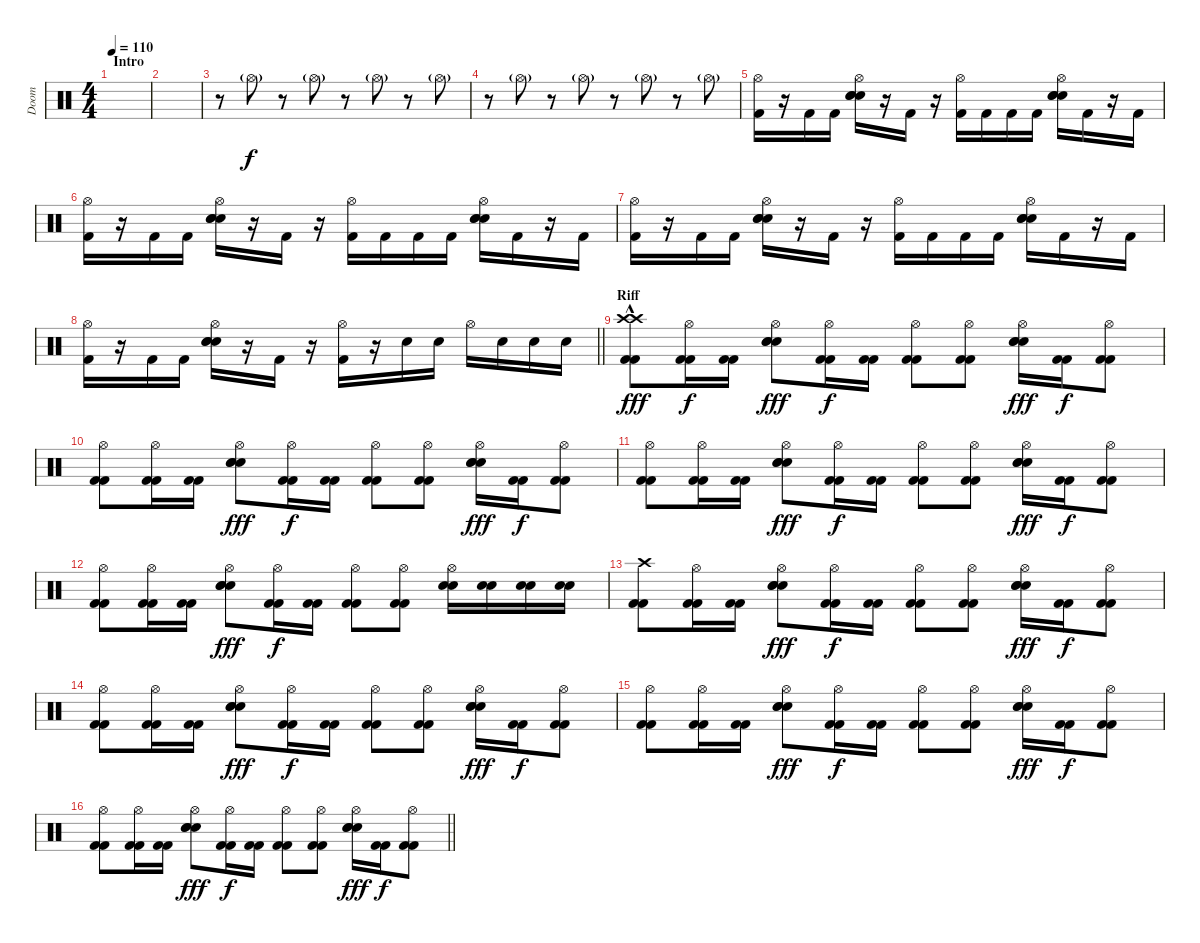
\track ("Doom" "Doom") {instrument percussion}
\staff {score}
\articulation defaults
\ts (4 4)
\section ("" "Intro")
\tempo 110
\clef neutral
\ks c
|
|
r.8 "Hi-Hat (open)"{g}.8 r.8 "Hi-Hat (open)"{g}.8 r.8 "Hi-Hat (open)"{g}.8 r.8 "Hi-Hat (open)"{g}.8 |
r.8 "Hi-Hat (open)"{g}.8 r.8 "Hi-Hat (open)"{g}.8 r.8 "Hi-Hat (open)"{g}.8 r.8 "Hi-Hat (open)"{g}.8 |
("Hi-Hat (open)" "Kick (hit) 2").16{dy f} r.16 "Kick (hit) 2".16 "Kick (hit) 2".16 ("Electric Snare (hit)" "Electric Snare (hit)" "Electric Snare (hit)" "Hi-Hat (open)").16 r.16 "Kick (hit) 2".16 r.16 ("Kick (hit) 2" "Hi-Hat (open)").16 "Kick (hit) 2".16 "Kick (hit) 2".16 "Kick (hit) 2".16 ("Electric Snare (hit)" "Electric Snare (hit)" "Electric Snare (hit)" "Hi-Hat (open)").16 "Kick (hit) 2".16 r.16 "Kick (hit) 2".16 |
("Hi-Hat (open)" "Kick (hit) 2").16 r.16 "Kick (hit) 2".16 "Kick (hit) 2".16 ("Electric Snare (hit)" "Electric Snare (hit)" "Electric Snare (hit)" "Hi-Hat (open)").16 r.16 "Kick (hit) 2".16 r.16 ("Kick (hit) 2" "Hi-Hat (open)").16 "Kick (hit) 2".16 "Kick (hit) 2".16 "Kick (hit) 2".16 ("Electric Snare (hit)" "Electric Snare (hit)" "Electric Snare (hit)" "Hi-Hat (open)").16 "Kick (hit) 2".16 r.16 "Kick (hit) 2".16 |
("Hi-Hat (open)" "Kick (hit) 2").16 r.16 "Kick (hit) 2".16 "Kick (hit) 2".16 ("Electric Snare (hit)" "Electric Snare (hit)" "Electric Snare (hit)" "Hi-Hat (open)").16 r.16 "Kick (hit) 2".16 r.16 ("Kick (hit) 2" "Hi-Hat (open)").16 "Kick (hit) 2".16 "Kick (hit) 2".16 "Kick (hit) 2".16 ("Electric Snare (hit)" "Electric Snare (hit)" "Electric Snare (hit)" "Hi-Hat (open)").16 "Kick (hit) 2".16 r.16 "Kick (hit) 2".16 |
\barLineRight lightlight
("Hi-Hat (open)" "Kick (hit) 2").16 r.16 "Kick (hit) 2".16 "Kick (hit) 2".16 ("Electric Snare (hit)" "Electric Snare (hit)" "Electric Snare (hit)" "Hi-Hat (open)").16 r.16 "Kick (hit) 2".16 r.16 ("Kick (hit) 2" "Hi-Hat (open)").16 r.16 "Electric Snare (hit)".16 "Electric Snare (hit)".16 "Hi-Hat (open)".16 "Electric Snare (hit)".16 "Electric Snare (hit)".16 "Electric Snare (hit)".16 |
\section ("" "Riff")
("Crash high (hit)"{hac} "Crash high (hit)" "Kick (hit) 2" "Kick (hit) 2").8{dy fff} ("Hi-Hat (open)" "Kick (hit) 2" "Kick (hit) 2").16{dy f} ("Kick (hit) 2" "Kick (hit) 2").16 ("Hi-Hat (open)" "Electric Snare (hit)" "Electric Snare (hit)" "Electric Snare (hit)").8{dy fff} ("Hi-Hat (open)" "Kick (hit) 2" "Kick (hit) 2").16{dy f} ("Kick (hit) 2" "Kick (hit) 2").16 ("Hi-Hat (open)" "Kick (hit) 2" "Kick (hit) 2").8 ("Hi-Hat (open)" "Kick (hit) 2" "Kick (hit) 2").8 ("Hi-Hat (open)" "Electric Snare (hit)" "Electric Snare (hit)" "Electric Snare (hit)").16{dy fff} ("Kick (hit) 2" "Kick (hit) 2").16{dy f} ("Hi-Hat (open)" "Kick (hit) 2" "Kick (hit) 2").8 |
("Hi-Hat (open)" "Kick (hit) 2" "Kick (hit) 2").8 ("Hi-Hat (open)" "Kick (hit) 2" "Kick (hit) 2").16 ("Kick (hit) 2" "Kick (hit) 2").16 ("Hi-Hat (open)" "Electric Snare (hit)" "Electric Snare (hit)" "Electric Snare (hit)").8{dy fff} ("Hi-Hat (open)" "Kick (hit) 2" "Kick (hit) 2").16{dy f} ("Kick (hit) 2" "Kick (hit) 2").16 ("Hi-Hat (open)" "Kick (hit) 2" "Kick (hit) 2").8 ("Hi-Hat (open)" "Kick (hit) 2" "Kick (hit) 2").8 ("Hi-Hat (open)" "Electric Snare (hit)" "Electric Snare (hit)" "Electric Snare (hit)").16{dy fff} ("Kick (hit) 2" "Kick (hit) 2").16{dy f} ("Hi-Hat (open)" "Kick (hit) 2" "Kick (hit) 2").8 |
("Hi-Hat (open)" "Kick (hit) 2" "Kick (hit) 2").8 ("Hi-Hat (open)" "Kick (hit) 2" "Kick (hit) 2").16 ("Kick (hit) 2" "Kick (hit) 2").16 ("Hi-Hat (open)" "Electric Snare (hit)" "Electric Snare (hit)" "Electric Snare (hit)").8{dy fff} ("Hi-Hat (open)" "Kick (hit) 2" "Kick (hit) 2").16{dy f} ("Kick (hit) 2" "Kick (hit) 2").16 ("Hi-Hat (open)" "Kick (hit) 2" "Kick (hit) 2").8 ("Hi-Hat (open)" "Kick (hit) 2" "Kick (hit) 2").8 ("Hi-Hat (open)" "Electric Snare (hit)" "Electric Snare (hit)" "Electric Snare (hit)").16{dy fff} ("Kick (hit) 2" "Kick (hit) 2").16{dy f} ("Hi-Hat (open)" "Kick (hit) 2" "Kick (hit) 2").8 |
("Hi-Hat (open)" "Kick (hit) 2" "Kick (hit) 2").8 ("Hi-Hat (open)" "Kick (hit) 2" "Kick (hit) 2").16 ("Kick (hit) 2" "Kick (hit) 2").16 ("Hi-Hat (open)" "Electric Snare (hit)" "Electric Snare (hit)" "Electric Snare (hit)").8{dy fff} ("Hi-Hat (open)" "Kick (hit) 2" "Kick (hit) 2").16{dy f} ("Kick (hit) 2" "Kick (hit) 2").16 ("Hi-Hat (open)" "Kick (hit) 2" "Kick (hit) 2").8 ("Hi-Hat (open)" "Kick (hit) 2" "Kick (hit) 2").8 ("Electric Snare (hit)" "Hi-Hat (open)" "Electric Snare (hit)").16 ("Electric Snare (hit)" "Electric Snare (hit)").16 ("Electric Snare (hit)" "Electric Snare (hit)").16 ("Electric Snare (hit)" "Electric Snare (hit)").16 |
("Crash high (hit)" "Kick (hit) 2" "Kick (hit) 2").8 ("Hi-Hat (open)" "Kick (hit) 2" "Kick (hit) 2").16 ("Kick (hit) 2" "Kick (hit) 2").16 ("Hi-Hat (open)" "Electric Snare (hit)" "Electric Snare (hit)" "Electric Snare (hit)").8{dy fff} ("Hi-Hat (open)" "Kick (hit) 2" "Kick (hit) 2").16{dy f} ("Kick (hit) 2" "Kick (hit) 2").16 ("Hi-Hat (open)" "Kick (hit) 2" "Kick (hit) 2").8 ("Hi-Hat (open)" "Kick (hit) 2" "Kick (hit) 2").8 ("Hi-Hat (open)" "Electric Snare (hit)" "Electric Snare (hit)" "Electric Snare (hit)").16{dy fff} ("Kick (hit) 2" "Kick (hit) 2").16{dy f} ("Hi-Hat (open)" "Kick (hit) 2" "Kick (hit) 2").8 |
("Hi-Hat (open)" "Kick (hit) 2" "Kick (hit) 2").8 ("Hi-Hat (open)" "Kick (hit) 2" "Kick (hit) 2").16 ("Kick (hit) 2" "Kick (hit) 2").16 ("Hi-Hat (open)" "Electric Snare (hit)" "Electric Snare (hit)" "Electric Snare (hit)").8{dy fff} ("Hi-Hat (open)" "Kick (hit) 2" "Kick (hit) 2").16{dy f} ("Kick (hit) 2" "Kick (hit) 2").16 ("Hi-Hat (open)" "Kick (hit) 2" "Kick (hit) 2").8 ("Hi-Hat (open)" "Kick (hit) 2" "Kick (hit) 2").8 ("Hi-Hat (open)" "Electric Snare (hit)" "Electric Snare (hit)" "Electric Snare (hit)").16{dy fff} ("Kick (hit) 2" "Kick (hit) 2").16{dy f} ("Hi-Hat (open)" "Kick (hit) 2" "Kick (hit) 2").8 |
("Hi-Hat (open)" "Kick (hit) 2" "Kick (hit) 2").8 ("Hi-Hat (open)" "Kick (hit) 2" "Kick (hit) 2").16 ("Kick (hit) 2" "Kick (hit) 2").16 ("Hi-Hat (open)" "Electric Snare (hit)" "Electric Snare (hit)" "Electric Snare (hit)").8{dy fff} ("Hi-Hat (open)" "Kick (hit) 2" "Kick (hit) 2").16{dy f} ("Kick (hit) 2" "Kick (hit) 2").16 ("Hi-Hat (open)" "Kick (hit) 2" "Kick (hit) 2").8 ("Hi-Hat (open)" "Kick (hit) 2" "Kick (hit) 2").8 ("Hi-Hat (open)" "Electric Snare (hit)" "Electric Snare (hit)" "Electric Snare (hit)").16{dy fff} ("Kick (hit) 2" "Kick (hit) 2").16{dy f} ("Hi-Hat (open)" "Kick (hit) 2" "Kick (hit) 2").8 |
\barLineRight lightlight
("Hi-Hat (open)" "Kick (hit) 2" "Kick (hit) 2").8 ("Hi-Hat (open)" "Kick (hit) 2" "Kick (hit) 2").16 ("Kick (hit) 2" "Kick (hit) 2").16 ("Hi-Hat (open)" "Electric Snare (hit)" "Electric Snare (hit)" "Electric Snare (hit)").8{dy fff} ("Hi-Hat (open)" "Kick (hit) 2" "Kick (hit) 2").16{dy f} ("Kick (hit) 2" "Kick (hit) 2").16 ("Hi-Hat (open)" "Kick (hit) 2" "Kick (hit) 2").8 ("Hi-Hat (open)" "Kick (hit) 2" "Kick (hit) 2").8 ("Hi-Hat (open)" "Electric Snare (hit)" "Electric Snare (hit)" "Electric Snare (hit)").16{dy fff} ("Kick (hit) 2" "Kick (hit) 2").16{dy f} ("Hi-Hat (open)" "Kick (hit) 2" "Kick (hit) 2").8
